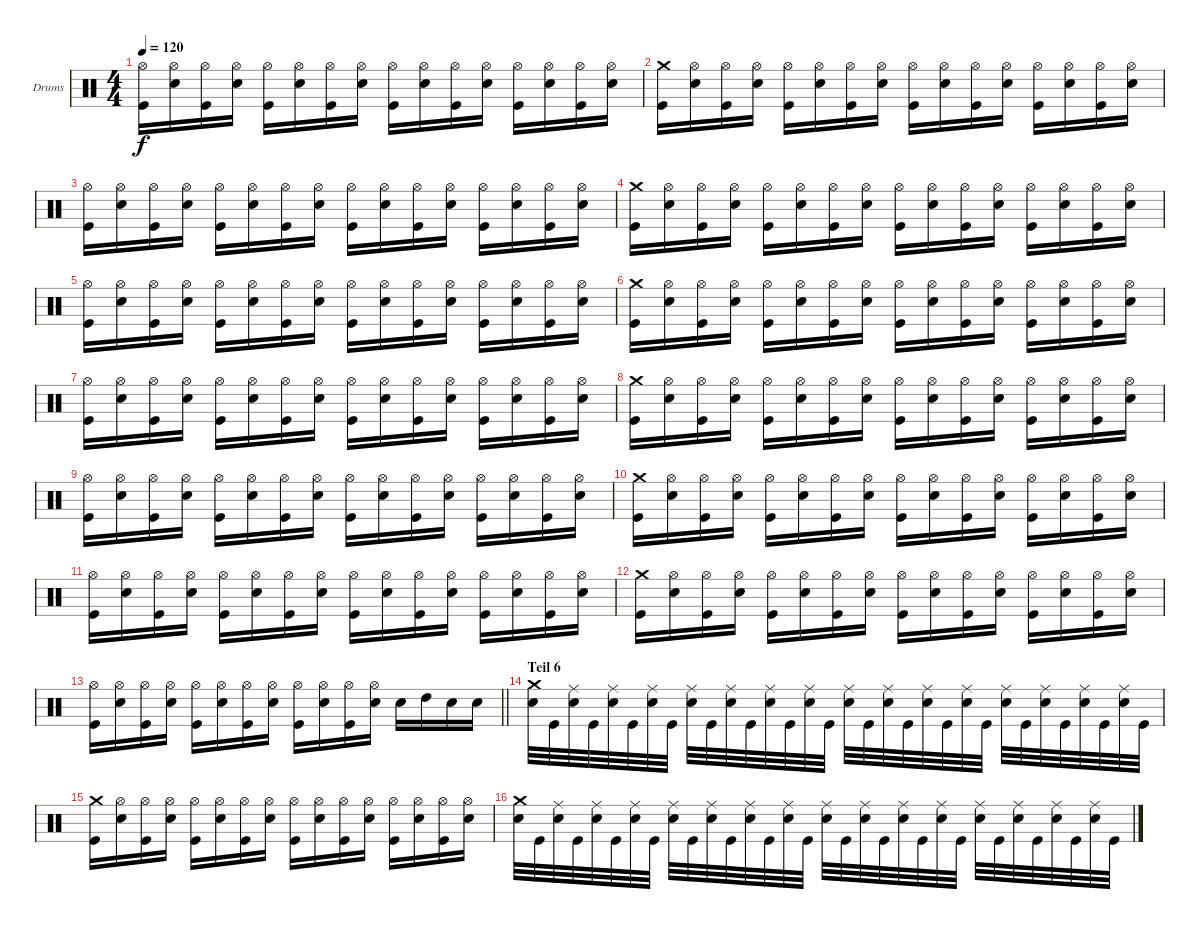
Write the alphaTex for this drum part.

\bracketExtendMode groupsimilarinstruments
\firstSystemTrackNameOrientation horizontal
\otherSystemsTrackNameOrientation horizontal
\track ("Drumkit" "Drums") {instrument percussion}
\staff {score}
\articulation defaults
\ts (4 4)
\tempo 120
\clef neutral
\ks c
("Hi-Hat (open)" "Kick (hit)").16{dy f} ("Hi-Hat (open)" "Snare (hit) 2").16 ("Hi-Hat (open)" "Kick (hit)").16 ("Hi-Hat (open)" "Snare (hit) 2").16 ("Hi-Hat (open)" "Kick (hit)").16 ("Hi-Hat (open)" "Snare (hit) 2").16 ("Hi-Hat (open)" "Kick (hit)").16 ("Hi-Hat (open)" "Snare (hit) 2").16 ("Hi-Hat (open)" "Kick (hit)").16 ("Hi-Hat (open)" "Snare (hit) 2").16 ("Hi-Hat (open)" "Kick (hit)").16 ("Hi-Hat (open)" "Snare (hit) 2").16 ("Hi-Hat (open)" "Kick (hit)").16 ("Hi-Hat (open)" "Snare (hit) 2").16 ("Hi-Hat (open)" "Kick (hit)").16 ("Hi-Hat (open)" "Snare (hit) 2").16 |
("Crash medium (hit)" "Kick (hit)").16 ("Hi-Hat (open)" "Snare (hit) 2").16 ("Hi-Hat (open)" "Kick (hit)").16 ("Hi-Hat (open)" "Snare (hit) 2").16 ("Hi-Hat (open)" "Kick (hit)").16 ("Hi-Hat (open)" "Snare (hit) 2").16 ("Hi-Hat (open)" "Kick (hit)").16 ("Hi-Hat (open)" "Snare (hit) 2").16 ("Hi-Hat (open)" "Kick (hit)").16 ("Hi-Hat (open)" "Snare (hit) 2").16 ("Hi-Hat (open)" "Kick (hit)").16 ("Hi-Hat (open)" "Snare (hit) 2").16 ("Hi-Hat (open)" "Kick (hit)").16 ("Hi-Hat (open)" "Snare (hit) 2").16 ("Hi-Hat (open)" "Kick (hit)").16 ("Hi-Hat (open)" "Snare (hit) 2").16 |
("Hi-Hat (open)" "Kick (hit)").16 ("Hi-Hat (open)" "Snare (hit) 2").16 ("Hi-Hat (open)" "Kick (hit)").16 ("Hi-Hat (open)" "Snare (hit) 2").16 ("Hi-Hat (open)" "Kick (hit)").16 ("Hi-Hat (open)" "Snare (hit) 2").16 ("Hi-Hat (open)" "Kick (hit)").16 ("Hi-Hat (open)" "Snare (hit) 2").16 ("Hi-Hat (open)" "Kick (hit)").16 ("Hi-Hat (open)" "Snare (hit) 2").16 ("Hi-Hat (open)" "Kick (hit)").16 ("Hi-Hat (open)" "Snare (hit) 2").16 ("Hi-Hat (open)" "Kick (hit)").16 ("Hi-Hat (open)" "Snare (hit) 2").16 ("Hi-Hat (open)" "Kick (hit)").16 ("Hi-Hat (open)" "Snare (hit) 2").16 |
("Crash medium (hit)" "Kick (hit)").16 ("Hi-Hat (open)" "Snare (hit) 2").16 ("Hi-Hat (open)" "Kick (hit)").16 ("Hi-Hat (open)" "Snare (hit) 2").16 ("Hi-Hat (open)" "Kick (hit)").16 ("Hi-Hat (open)" "Snare (hit) 2").16 ("Hi-Hat (open)" "Kick (hit)").16 ("Hi-Hat (open)" "Snare (hit) 2").16 ("Hi-Hat (open)" "Kick (hit)").16 ("Hi-Hat (open)" "Snare (hit) 2").16 ("Hi-Hat (open)" "Kick (hit)").16 ("Hi-Hat (open)" "Snare (hit) 2").16 ("Hi-Hat (open)" "Kick (hit)").16 ("Hi-Hat (open)" "Snare (hit) 2").16 ("Hi-Hat (open)" "Kick (hit)").16 ("Hi-Hat (open)" "Snare (hit) 2").16 |
("Hi-Hat (open)" "Kick (hit)").16 ("Hi-Hat (open)" "Snare (hit) 2").16 ("Hi-Hat (open)" "Kick (hit)").16 ("Hi-Hat (open)" "Snare (hit) 2").16 ("Hi-Hat (open)" "Kick (hit)").16 ("Hi-Hat (open)" "Snare (hit) 2").16 ("Hi-Hat (open)" "Kick (hit)").16 ("Hi-Hat (open)" "Snare (hit) 2").16 ("Hi-Hat (open)" "Kick (hit)").16 ("Hi-Hat (open)" "Snare (hit) 2").16 ("Hi-Hat (open)" "Kick (hit)").16 ("Hi-Hat (open)" "Snare (hit) 2").16 ("Hi-Hat (open)" "Kick (hit)").16 ("Hi-Hat (open)" "Snare (hit) 2").16 ("Hi-Hat (open)" "Kick (hit)").16 ("Hi-Hat (open)" "Snare (hit) 2").16 |
("Crash medium (hit)" "Kick (hit)").16 ("Hi-Hat (open)" "Snare (hit) 2").16 ("Hi-Hat (open)" "Kick (hit)").16 ("Hi-Hat (open)" "Snare (hit) 2").16 ("Hi-Hat (open)" "Kick (hit)").16 ("Hi-Hat (open)" "Snare (hit) 2").16 ("Hi-Hat (open)" "Kick (hit)").16 ("Hi-Hat (open)" "Snare (hit) 2").16 ("Hi-Hat (open)" "Kick (hit)").16 ("Hi-Hat (open)" "Snare (hit) 2").16 ("Hi-Hat (open)" "Kick (hit)").16 ("Hi-Hat (open)" "Snare (hit) 2").16 ("Hi-Hat (open)" "Kick (hit)").16 ("Hi-Hat (open)" "Snare (hit) 2").16 ("Hi-Hat (open)" "Kick (hit)").16 ("Hi-Hat (open)" "Snare (hit) 2").16 |
("Hi-Hat (open)" "Kick (hit)").16 ("Hi-Hat (open)" "Snare (hit) 2").16 ("Hi-Hat (open)" "Kick (hit)").16 ("Hi-Hat (open)" "Snare (hit) 2").16 ("Hi-Hat (open)" "Kick (hit)").16 ("Hi-Hat (open)" "Snare (hit) 2").16 ("Hi-Hat (open)" "Kick (hit)").16 ("Hi-Hat (open)" "Snare (hit) 2").16 ("Hi-Hat (open)" "Kick (hit)").16 ("Hi-Hat (open)" "Snare (hit) 2").16 ("Hi-Hat (open)" "Kick (hit)").16 ("Hi-Hat (open)" "Snare (hit) 2").16 ("Hi-Hat (open)" "Kick (hit)").16 ("Hi-Hat (open)" "Snare (hit) 2").16 ("Hi-Hat (open)" "Kick (hit)").16 ("Hi-Hat (open)" "Snare (hit) 2").16 |
("Crash medium (hit)" "Kick (hit)").16 ("Hi-Hat (open)" "Snare (hit) 2").16 ("Hi-Hat (open)" "Kick (hit)").16 ("Hi-Hat (open)" "Snare (hit) 2").16 ("Hi-Hat (open)" "Kick (hit)").16 ("Hi-Hat (open)" "Snare (hit) 2").16 ("Hi-Hat (open)" "Kick (hit)").16 ("Hi-Hat (open)" "Snare (hit) 2").16 ("Hi-Hat (open)" "Kick (hit)").16 ("Hi-Hat (open)" "Snare (hit) 2").16 ("Hi-Hat (open)" "Kick (hit)").16 ("Hi-Hat (open)" "Snare (hit) 2").16 ("Hi-Hat (open)" "Kick (hit)").16 ("Hi-Hat (open)" "Snare (hit) 2").16 ("Hi-Hat (open)" "Kick (hit)").16 ("Hi-Hat (open)" "Snare (hit) 2").16 |
("Hi-Hat (open)" "Kick (hit)").16 ("Hi-Hat (open)" "Snare (hit) 2").16 ("Hi-Hat (open)" "Kick (hit)").16 ("Hi-Hat (open)" "Snare (hit) 2").16 ("Hi-Hat (open)" "Kick (hit)").16 ("Hi-Hat (open)" "Snare (hit) 2").16 ("Hi-Hat (open)" "Kick (hit)").16 ("Hi-Hat (open)" "Snare (hit) 2").16 ("Hi-Hat (open)" "Kick (hit)").16 ("Hi-Hat (open)" "Snare (hit) 2").16 ("Hi-Hat (open)" "Kick (hit)").16 ("Hi-Hat (open)" "Snare (hit) 2").16 ("Hi-Hat (open)" "Kick (hit)").16 ("Hi-Hat (open)" "Snare (hit) 2").16 ("Hi-Hat (open)" "Kick (hit)").16 ("Hi-Hat (open)" "Snare (hit) 2").16 |
("Crash medium (hit)" "Kick (hit)").16 ("Hi-Hat (open)" "Snare (hit) 2").16 ("Hi-Hat (open)" "Kick (hit)").16 ("Hi-Hat (open)" "Snare (hit) 2").16 ("Hi-Hat (open)" "Kick (hit)").16 ("Hi-Hat (open)" "Snare (hit) 2").16 ("Hi-Hat (open)" "Kick (hit)").16 ("Hi-Hat (open)" "Snare (hit) 2").16 ("Hi-Hat (open)" "Kick (hit)").16 ("Hi-Hat (open)" "Snare (hit) 2").16 ("Hi-Hat (open)" "Kick (hit)").16 ("Hi-Hat (open)" "Snare (hit) 2").16 ("Hi-Hat (open)" "Kick (hit)").16 ("Hi-Hat (open)" "Snare (hit) 2").16 ("Hi-Hat (open)" "Kick (hit)").16 ("Hi-Hat (open)" "Snare (hit) 2").16 |
("Hi-Hat (open)" "Kick (hit)").16 ("Hi-Hat (open)" "Snare (hit) 2").16 ("Hi-Hat (open)" "Kick (hit)").16 ("Hi-Hat (open)" "Snare (hit) 2").16 ("Hi-Hat (open)" "Kick (hit)").16 ("Hi-Hat (open)" "Snare (hit) 2").16 ("Hi-Hat (open)" "Kick (hit)").16 ("Hi-Hat (open)" "Snare (hit) 2").16 ("Hi-Hat (open)" "Kick (hit)").16 ("Hi-Hat (open)" "Snare (hit) 2").16 ("Hi-Hat (open)" "Kick (hit)").16 ("Hi-Hat (open)" "Snare (hit) 2").16 ("Hi-Hat (open)" "Kick (hit)").16 ("Hi-Hat (open)" "Snare (hit) 2").16 ("Hi-Hat (open)" "Kick (hit)").16 ("Hi-Hat (open)" "Snare (hit) 2").16 |
("Crash medium (hit)" "Kick (hit)").16 ("Hi-Hat (open)" "Snare (hit) 2").16 ("Hi-Hat (open)" "Kick (hit)").16 ("Hi-Hat (open)" "Snare (hit) 2").16 ("Hi-Hat (open)" "Kick (hit)").16 ("Hi-Hat (open)" "Snare (hit) 2").16 ("Hi-Hat (open)" "Kick (hit)").16 ("Hi-Hat (open)" "Snare (hit) 2").16 ("Hi-Hat (open)" "Kick (hit)").16 ("Hi-Hat (open)" "Snare (hit) 2").16 ("Hi-Hat (open)" "Kick (hit)").16 ("Hi-Hat (open)" "Snare (hit) 2").16 ("Hi-Hat (open)" "Kick (hit)").16 ("Hi-Hat (open)" "Snare (hit) 2").16 ("Hi-Hat (open)" "Kick (hit)").16 ("Hi-Hat (open)" "Snare (hit) 2").16 |
\barLineRight lightlight
("Hi-Hat (open)" "Kick (hit)").16 ("Hi-Hat (open)" "Snare (hit) 2").16 ("Hi-Hat (open)" "Kick (hit)").16 ("Hi-Hat (open)" "Snare (hit) 2").16 ("Hi-Hat (open)" "Kick (hit)").16 ("Hi-Hat (open)" "Snare (hit) 2").16 ("Hi-Hat (open)" "Kick (hit)").16 ("Hi-Hat (open)" "Snare (hit) 2").16 ("Hi-Hat (open)" "Kick (hit)").16 ("Hi-Hat (open)" "Snare (hit) 2").16 ("Hi-Hat (open)" "Kick (hit)").16 ("Hi-Hat (open)" "Snare (hit) 2").16 "Snare (hit) 2".16 "High Tom (hit)".16 "Snare (hit) 2".16 "Snare (hit) 2".16 |
\section ("" "Teil 6")
("Crash medium (hit)" "Snare (hit) 2").32 "Kick (hit)".32 ("Ride (middle)" "Snare (hit) 2").32 "Kick (hit)".32 ("Ride (middle)" "Snare (hit) 2").32 "Kick (hit)".32 ("Ride (middle)" "Snare (hit) 2").32 "Kick (hit)".32 ("Ride (middle)" "Snare (hit) 2").32 "Kick (hit)".32 ("Ride (middle)" "Snare (hit) 2").32 "Kick (hit)".32 ("Ride (middle)" "Snare (hit) 2").32 "Kick (hit)".32 ("Ride (middle)" "Snare (hit) 2").32 "Kick (hit)".32 ("Ride (middle)" "Snare (hit) 2").32 "Kick (hit)".32 ("Ride (middle)" "Snare (hit) 2").32 "Kick (hit)".32 ("Ride (middle)" "Snare (hit) 2").32 "Kick (hit)".32 ("Ride (middle)" "Snare (hit) 2").32 "Kick (hit)".32 ("Ride (middle)" "Snare (hit) 2").32 "Kick (hit)".32 ("Ride (middle)" "Snare (hit) 2").32 "Kick (hit)".32 ("Ride (middle)" "Snare (hit) 2").32 "Kick (hit)".32 ("Ride (middle)" "Snare (hit) 2").32 "Kick (hit)".32 |
("Crash medium (hit)" "Kick (hit)").16 ("Hi-Hat (open)" "Snare (hit) 2").16 ("Hi-Hat (open)" "Kick (hit)").16 ("Hi-Hat (open)" "Snare (hit) 2").16 ("Hi-Hat (open)" "Kick (hit)").16 ("Hi-Hat (open)" "Snare (hit) 2").16 ("Hi-Hat (open)" "Kick (hit)").16 ("Hi-Hat (open)" "Snare (hit) 2").16 ("Hi-Hat (open)" "Kick (hit)").16 ("Hi-Hat (open)" "Snare (hit) 2").16 ("Hi-Hat (open)" "Kick (hit)").16 ("Hi-Hat (open)" "Snare (hit) 2").16 ("Hi-Hat (open)" "Kick (hit)").16 ("Hi-Hat (open)" "Snare (hit) 2").16 ("Hi-Hat (open)" "Kick (hit)").16 ("Hi-Hat (open)" "Snare (hit) 2").16 |
("Crash medium (hit)" "Snare (hit) 2").32 "Kick (hit)".32 ("Ride (middle)" "Snare (hit) 2").32 "Kick (hit)".32 ("Ride (middle)" "Snare (hit) 2").32 "Kick (hit)".32 ("Ride (middle)" "Snare (hit) 2").32 "Kick (hit)".32 ("Ride (middle)" "Snare (hit) 2").32 "Kick (hit)".32 ("Ride (middle)" "Snare (hit) 2").32 "Kick (hit)".32 ("Ride (middle)" "Snare (hit) 2").32 "Kick (hit)".32 ("Ride (middle)" "Snare (hit) 2").32 "Kick (hit)".32 ("Ride (middle)" "Snare (hit) 2").32 "Kick (hit)".32 ("Ride (middle)" "Snare (hit) 2").32 "Kick (hit)".32 ("Ride (middle)" "Snare (hit) 2").32 "Kick (hit)".32 ("Ride (middle)" "Snare (hit) 2").32 "Kick (hit)".32 ("Ride (middle)" "Snare (hit) 2").32 "Kick (hit)".32 ("Ride (middle)" "Snare (hit) 2").32 "Kick (hit)".32 ("Ride (middle)" "Snare (hit) 2").32 "Kick (hit)".32 ("Ride (middle)" "Snare (hit) 2").32 "Kick (hit)".32
